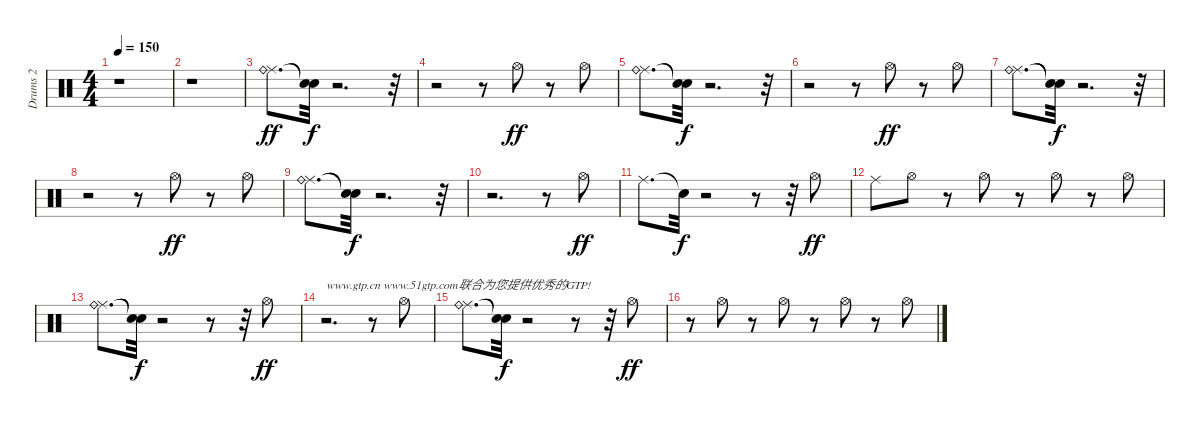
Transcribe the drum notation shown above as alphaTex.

\track ("Drums 2" "Drums 2") {instrument percussion}
\staff {score}
\articulation defaults
\ts (4 4)
\tempo 150
\clef neutral
\ks c
r.1{dy ff} |
r.1 |
("Ride (middle)" "Ride (bell)").8{d} ("Snare (hit)"{t} "Snare (hit)"{t}).32{dy f} r.2{d} r.32 |
r.2 r.8 "Hi-Hat (open)".8{dy ff} r.8 "Hi-Hat (open)".8 |
("Ride (middle)" "Ride (bell)").8{d} ("Snare (hit)"{t} "Snare (hit)"{t}).32{dy f} r.2{d} r.32 |
r.2 r.8 "Hi-Hat (open)".8{dy ff} r.8 "Hi-Hat (open)".8 |
("Ride (middle)" "Ride (bell)").8{d} ("Snare (hit)"{t} "Snare (hit)"{t}).32{dy f} r.2{d} r.32 |
r.2 r.8 "Hi-Hat (open)".8{dy ff} r.8 "Hi-Hat (open)".8 |
("Ride (middle)" "Ride (bell)").8{d} ("Snare (hit)"{t} "Snare (hit)"{t}).32{dy f} r.2{d} r.32 |
r.2{d} r.8 "Hi-Hat (open)".8{dy ff} |
"Ride (middle)".8{d} "Snare (hit)"{t}.32{dy f} r.2 r.8 r.32 "Hi-Hat (open)".8{dy ff} |
"Ride (middle)".8 "Hi-Hat (open)".8 r.8 "Hi-Hat (open)".8 r.8 "Hi-Hat (open)".8 r.8 "Hi-Hat (open)".8 |
("Ride (middle)" "Ride (bell)").8{d} ("Snare (hit)"{t} "Snare (hit)"{t}).32{dy f} r.2 r.8 r.32 "Hi-Hat (open)".8{dy ff} |
r.2{d txt "www.gtp.cn www.51gtp.com联合为您提供优秀的GTP!"} r.8 "Hi-Hat (open)".8 |
("Ride (middle)" "Ride (bell)").8{d} ("Snare (hit)"{t} "Snare (hit)"{t}).32{dy f} r.2 r.8 r.32 "Hi-Hat (open)".8{dy ff} |
r.8 "Hi-Hat (open)".8 r.8 "Hi-Hat (open)".8 r.8 "Hi-Hat (open)".8 r.8 "Hi-Hat (open)".8
